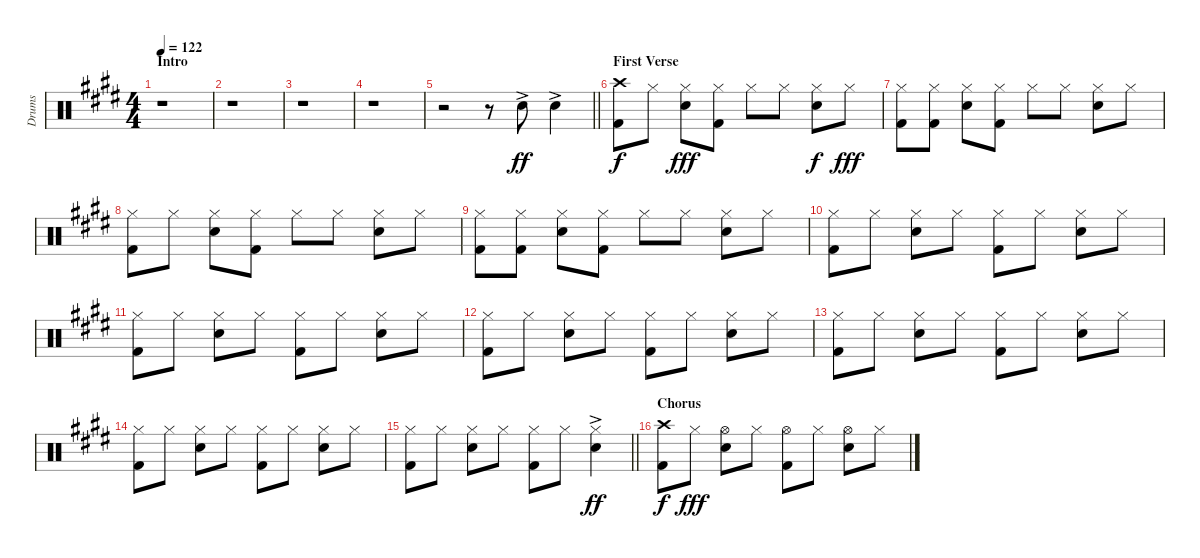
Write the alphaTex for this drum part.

\track ("Drums" "Drums") {instrument percussion}
\staff {score}
\articulation defaults
\ts (4 4)
\section ("" "Intro")
\tempo 122
\clef neutral
\ks e
r.1{dy ff} |
r.1 |
r.1 |
r.1 |
\barLineRight lightlight
r.2 r.8 "Electric Snare (hit)"{ac}.8 "Electric Snare (hit)"{ac}.4 |
\section ("" "First Verse")
("Crash high (hit)" "Kick (hit) 2").8{dy f} "Hi-Hat (closed)".8 ("Hi-Hat (closed)" "Electric Snare (hit)").8{dy fff} ("Hi-Hat (closed)" "Kick (hit) 2").8 "Hi-Hat (closed)".8 "Hi-Hat (closed)".8 ("Hi-Hat (closed)" "Electric Snare (hit)").8{dy f} "Hi-Hat (closed)".8{dy fff} |
("Hi-Hat (closed)" "Kick (hit) 2").8 ("Hi-Hat (closed)" "Kick (hit) 2").8 ("Hi-Hat (closed)" "Electric Snare (hit)").8 ("Hi-Hat (closed)" "Kick (hit) 2").8 "Hi-Hat (closed)".8 "Hi-Hat (closed)".8 ("Hi-Hat (closed)" "Electric Snare (hit)").8 "Hi-Hat (closed)".8 |
("Hi-Hat (closed)" "Kick (hit) 2").8 "Hi-Hat (closed)".8 ("Hi-Hat (closed)" "Electric Snare (hit)").8 ("Hi-Hat (closed)" "Kick (hit) 2").8 "Hi-Hat (closed)".8 "Hi-Hat (closed)".8 ("Hi-Hat (closed)" "Electric Snare (hit)").8 "Hi-Hat (closed)".8 |
("Hi-Hat (closed)" "Kick (hit) 2").8 ("Hi-Hat (closed)" "Kick (hit) 2").8 ("Hi-Hat (closed)" "Electric Snare (hit)").8 ("Hi-Hat (closed)" "Kick (hit) 2").8 "Hi-Hat (closed)".8 "Hi-Hat (closed)".8 ("Hi-Hat (closed)" "Electric Snare (hit)").8 "Hi-Hat (closed)".8 |
("Hi-Hat (closed)" "Kick (hit) 2").8 "Hi-Hat (closed)".8 ("Hi-Hat (closed)" "Electric Snare (hit)").8 "Hi-Hat (closed)".8 ("Hi-Hat (closed)" "Kick (hit) 2").8 "Hi-Hat (closed)".8 ("Hi-Hat (closed)" "Electric Snare (hit)").8 "Hi-Hat (closed)".8 |
("Hi-Hat (closed)" "Kick (hit) 2").8 "Hi-Hat (closed)".8 ("Hi-Hat (closed)" "Electric Snare (hit)").8 "Hi-Hat (closed)".8 ("Hi-Hat (closed)" "Kick (hit) 2").8 "Hi-Hat (closed)".8 ("Hi-Hat (closed)" "Electric Snare (hit)").8 "Hi-Hat (closed)".8 |
("Hi-Hat (closed)" "Kick (hit) 2").8 "Hi-Hat (closed)".8 ("Hi-Hat (closed)" "Electric Snare (hit)").8 "Hi-Hat (closed)".8 ("Hi-Hat (closed)" "Kick (hit) 2").8 "Hi-Hat (closed)".8 ("Hi-Hat (closed)" "Electric Snare (hit)").8 "Hi-Hat (closed)".8 |
("Hi-Hat (closed)" "Kick (hit) 2").8 "Hi-Hat (closed)".8 ("Hi-Hat (closed)" "Electric Snare (hit)").8 "Hi-Hat (closed)".8 ("Hi-Hat (closed)" "Kick (hit) 2").8 "Hi-Hat (closed)".8 ("Hi-Hat (closed)" "Electric Snare (hit)").8 "Hi-Hat (closed)".8 |
("Hi-Hat (closed)" "Kick (hit) 2").8 "Hi-Hat (closed)".8 ("Hi-Hat (closed)" "Electric Snare (hit)").8 "Hi-Hat (closed)".8 ("Hi-Hat (closed)" "Kick (hit) 2").8 "Hi-Hat (closed)".8 ("Hi-Hat (closed)" "Electric Snare (hit)").8 "Hi-Hat (closed)".8 |
\barLineRight lightlight
("Hi-Hat (closed)" "Kick (hit) 2").8 "Hi-Hat (closed)".8 ("Hi-Hat (closed)" "Electric Snare (hit)").8 "Hi-Hat (closed)".8 ("Hi-Hat (closed)" "Kick (hit) 2").8 "Hi-Hat (closed)".8 ("Hi-Hat (closed)" "Electric Snare (hit)"{ac}).4{dy ff} |
\section ("" "Chorus")
("Crash high (hit)" "Kick (hit) 2").8{dy f} "Hi-Hat (closed)".8{dy fff} ("Hi-Hat (open)" "Electric Snare (hit)").8 "Hi-Hat (closed)".8 ("Hi-Hat (open)" "Kick (hit) 2").8 "Hi-Hat (closed)".8 ("Hi-Hat (open)" "Electric Snare (hit)").8 "Hi-Hat (closed)".8
